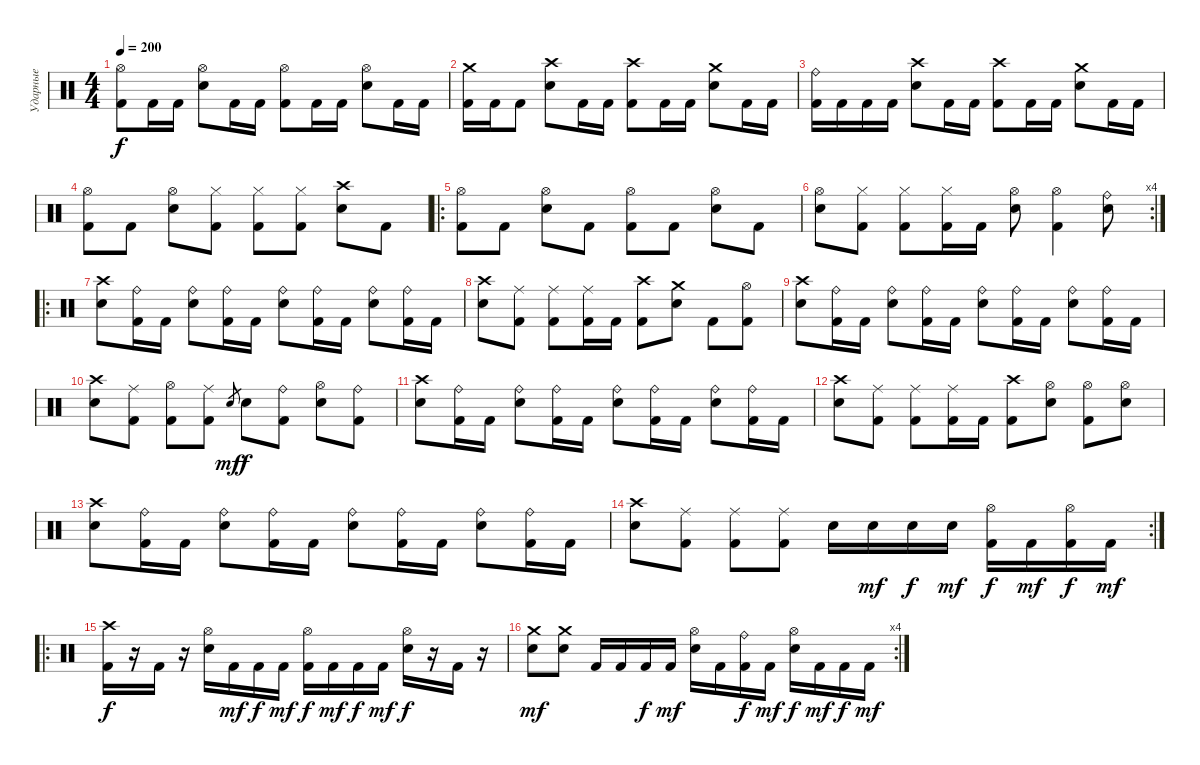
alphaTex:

\track ("Ударные" "Ударные") {instrument percussion}
\staff {score}
\articulation defaults
\ts (4 4)
\tempo 200
\clef neutral
\ks c
("Hi-Hat (open)" "Kick (hit) 2").8{dy f} "Kick (hit) 2".16 "Kick (hit) 2".16 ("Hi-Hat (open)" "Electric Snare (hit)").8 "Kick (hit) 2".16 "Kick (hit) 2".16 ("Hi-Hat (open)" "Kick (hit) 2").8 "Kick (hit) 2".16 "Kick (hit) 2".16 ("Hi-Hat (open)" "Electric Snare (hit)").8 "Kick (hit) 2".16 "Kick (hit) 2".16 |
("Crash medium (hit)" "Kick (hit) 2").16 "Kick (hit) 2".16 "Kick (hit) 2".8 ("Crash high (hit)" "Electric Snare (hit)").8 "Kick (hit) 2".16 "Kick (hit) 2".16 ("Crash high (hit)" "Kick (hit) 2").8 "Kick (hit) 2".16 "Kick (hit) 2".16 ("Crash medium (hit)" "Electric Snare (hit)").8 "Kick (hit) 2".16 "Kick (hit) 2".16 |
("Ride (bell)" "Kick (hit) 2").16 "Kick (hit) 2".16 "Kick (hit) 2".16 "Kick (hit) 2".16 ("Crash high (hit)" "Electric Snare (hit)").8 "Kick (hit) 2".16 "Kick (hit) 2".16 ("Crash high (hit)" "Kick (hit) 2").8 "Kick (hit) 2".16 "Kick (hit) 2".16 ("Crash medium (hit)" "Electric Snare (hit)").8 "Kick (hit) 2".16 "Kick (hit) 2".16 |
("Hi-Hat (open)" "Kick (hit) 2").8 "Kick (hit) 2".8 ("Hi-Hat (open)" "Electric Snare (hit)").8 ("Hi-Hat (closed)" "Kick (hit) 2").8 ("Hi-Hat (closed)" "Kick (hit) 2").8 ("Hi-Hat (closed)" "Kick (hit) 2").8 ("Crash high (hit)" "Electric Snare (hit)").8 "Kick (hit) 2".8 |
\ro
("Hi-Hat (open)" "Kick (hit) 2").8 "Kick (hit) 2".8 ("Hi-Hat (open)" "Electric Snare (hit)").8 "Kick (hit) 2".8 ("Hi-Hat (open)" "Kick (hit) 2").8 "Kick (hit) 2".8 ("Hi-Hat (open)" "Electric Snare (hit)").8 "Kick (hit) 2".8 |
\rc 4
("Hi-Hat (open)" "Electric Snare (hit)").8 ("Hi-Hat (closed)" "Kick (hit) 2").8 ("Hi-Hat (closed)" "Kick (hit) 2").8 ("Hi-Hat (closed)" "Kick (hit) 2").16 "Kick (hit) 2".16 ("Hi-Hat (open)" "Electric Snare (hit)").8 ("Hi-Hat (open)" "Kick (hit) 2").4 ("Ride (bell)" "Electric Snare (hit)").8 |
\ro
("Crash high (hit)" "Electric Snare (hit)").8 ("Ride (bell)" "Kick (hit) 2").16 "Kick (hit) 2".16 ("Ride (bell)" "Electric Snare (hit)").8 ("Ride (bell)" "Kick (hit) 2").16 "Kick (hit) 2".16 ("Ride (bell)" "Electric Snare (hit)").8 ("Ride (bell)" "Kick (hit) 2").16 "Kick (hit) 2".16 ("Ride (bell)" "Electric Snare (hit)").8 ("Ride (bell)" "Kick (hit) 2").16 "Kick (hit) 2".16 |
("Crash high (hit)" "Electric Snare (hit)").8 ("Ride (middle)" "Kick (hit) 2").8 ("Ride (middle)" "Kick (hit) 2").8 ("Ride (middle)" "Kick (hit) 2").16 "Kick (hit) 2".16 ("Crash high (hit)" "Kick (hit) 2").8 ("Crash medium (hit)" "Electric Snare (hit)").8 "Kick (hit) 2".8 ("Hi-Hat (open)" "Kick (hit) 2").8 |
("Crash high (hit)" "Electric Snare (hit)").8 ("Ride (bell)" "Kick (hit) 2").16 "Kick (hit) 2".16 ("Ride (bell)" "Electric Snare (hit)").8 ("Ride (bell)" "Kick (hit) 2").16 "Kick (hit) 2".16 ("Ride (bell)" "Electric Snare (hit)").8 ("Ride (bell)" "Kick (hit) 2").16 "Kick (hit) 2".16 ("Ride (bell)" "Electric Snare (hit)").8 ("Ride (bell)" "Kick (hit) 2").16 "Kick (hit) 2".16 |
("Crash high (hit)" "Electric Snare (hit)").8 ("Ride (middle)" "Kick (hit) 2").8 ("Hi-Hat (open)" "Kick (hit) 2").8 ("Ride (middle)" "Kick (hit) 2").8 "Electric Snare (hit)".8{gr dy mf} "Electric Snare (hit)".8{dy f} ("Ride (bell)" "Kick (hit) 2").8 ("Hi-Hat (open)" "Electric Snare (hit)").8 ("Ride (bell)" "Kick (hit) 2").8 |
("Crash high (hit)" "Electric Snare (hit)").8 ("Ride (bell)" "Kick (hit) 2").16 "Kick (hit) 2".16 ("Ride (bell)" "Electric Snare (hit)").8 ("Ride (bell)" "Kick (hit) 2").16 "Kick (hit) 2".16 ("Ride (bell)" "Electric Snare (hit)").8 ("Ride (bell)" "Kick (hit) 2").16 "Kick (hit) 2".16 ("Ride (bell)" "Electric Snare (hit)").8 ("Ride (bell)" "Kick (hit) 2").16 "Kick (hit) 2".16 |
("Crash high (hit)" "Electric Snare (hit)").8 ("Ride (middle)" "Kick (hit) 2").8 ("Ride (middle)" "Kick (hit) 2").8 ("Ride (middle)" "Kick (hit) 2").16 "Kick (hit) 2".16 ("Crash high (hit)" "Kick (hit) 2").8 ("Hi-Hat (open)" "Electric Snare (hit)").8 ("Hi-Hat (open)" "Kick (hit) 2").8 ("Hi-Hat (open)" "Electric Snare (hit)").8 |
("Crash high (hit)" "Electric Snare (hit)").8 ("Ride (bell)" "Kick (hit) 2").16 "Kick (hit) 2".16 ("Ride (bell)" "Electric Snare (hit)").8 ("Ride (bell)" "Kick (hit) 2").16 "Kick (hit) 2".16 ("Ride (bell)" "Electric Snare (hit)").8 ("Ride (bell)" "Kick (hit) 2").16 "Kick (hit) 2".16 ("Ride (bell)" "Electric Snare (hit)").8 ("Ride (bell)" "Kick (hit) 2").16 "Kick (hit) 2".16 |
\rc 2
("Crash high (hit)" "Electric Snare (hit)").8 ("Ride (middle)" "Kick (hit) 2").8 ("Ride (middle)" "Kick (hit) 2").8 ("Ride (middle)" "Kick (hit) 2").8 "Electric Snare (hit)".16 "Electric Snare (hit)".16{dy mf} "Electric Snare (hit)".16{dy f} "Electric Snare (hit)".16{dy mf} ("Hi-Hat (open)" "Kick (hit) 2").16{dy f} "Kick (hit) 2".16{dy mf} ("Hi-Hat (open)" "Kick (hit) 2").16{dy f} "Kick (hit) 2".16{dy mf} |
\ro
("Crash high (hit)" "Kick (hit) 2").16{dy f} r.16 "Kick (hit) 2".16 r.16 ("Hi-Hat (open)" "Electric Snare (hit)").16 "Kick (hit) 2".16{dy mf} "Kick (hit) 2".16{dy f} "Kick (hit) 2".16{dy mf} ("Hi-Hat (open)" "Kick (hit) 2").16{dy f} "Kick (hit) 2".16{dy mf} "Kick (hit) 2".16{dy f} "Kick (hit) 2".16{dy mf} ("Hi-Hat (open)" "Electric Snare (hit)").16{dy f} r.16 "Kick (hit) 2".16 r.16 |
\rc 4
("Crash medium (hit)" "Electric Snare (hit)").8{dy mf} ("Crash medium (hit)" "Electric Snare (hit)").8 "Kick (hit) 2".16 "Kick (hit) 2".16 "Kick (hit) 2".16{dy f} "Kick (hit) 2".16{dy mf} ("Hi-Hat (open)" "Electric Snare (hit)").16 "Kick (hit) 2".16 ("Ride (bell)" "Kick (hit) 2").16{dy f} "Kick (hit) 2".16{dy mf} ("Hi-Hat (open)" "Electric Snare (hit)").16{dy f} "Kick (hit) 2".16{dy mf} "Kick (hit) 2".16{dy f} "Kick (hit) 2".16{dy mf}
